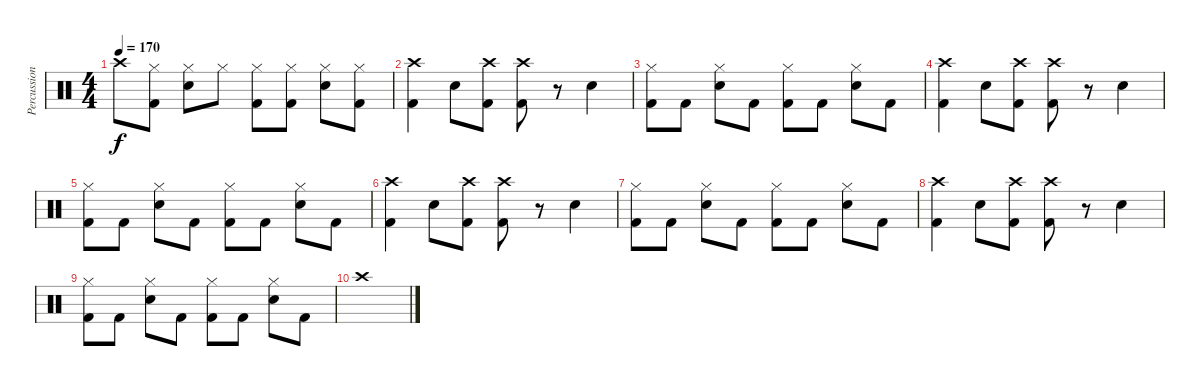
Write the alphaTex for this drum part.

\track ("Percussion" "Percussion") {instrument percussion}
\staff {score}
\articulation defaults
\ts (4 4)
\tempo 170
\clef neutral
\ks c "Crash high (hit)".8{dy f}
("Hi-Hat (closed)" "Kick (hit) 2").8 ("Hi-Hat (closed)" "Snare (hit) 2").8 "Hi-Hat (closed)".8 ("Hi-Hat (closed)" "Kick (hit) 2").8 ("Hi-Hat (closed)" "Kick (hit) 2").8 ("Hi-Hat (closed)" "Snare (hit) 2").8 ("Hi-Hat (closed)" "Kick (hit) 2").8 |
("Crash high (hit)" "Kick (hit) 2").4 "Snare (hit) 2".8 ("Crash high (hit)" "Kick (hit) 2").8 ("Crash high (hit)" "Kick (hit) 2").8 r.8 "Snare (hit) 2".4 |
("Hi-Hat (closed)" "Kick (hit) 2").8 "Kick (hit) 2".8 ("Hi-Hat (closed)" "Snare (hit) 2").8 "Kick (hit) 2".8 ("Hi-Hat (closed)" "Kick (hit) 2").8 "Kick (hit) 2".8 ("Hi-Hat (closed)" "Snare (hit) 2").8 "Kick (hit) 2".8 |
("Crash high (hit)" "Kick (hit) 2").4 "Snare (hit) 2".8 ("Crash high (hit)" "Kick (hit) 2").8 ("Crash high (hit)" "Kick (hit) 2").8 r.8 "Snare (hit) 2".4 |
("Hi-Hat (closed)" "Kick (hit) 2").8 "Kick (hit) 2".8 ("Hi-Hat (closed)" "Snare (hit) 2").8 "Kick (hit) 2".8 ("Hi-Hat (closed)" "Kick (hit) 2").8 "Kick (hit) 2".8 ("Hi-Hat (closed)" "Snare (hit) 2").8 "Kick (hit) 2".8 |
("Crash high (hit)" "Kick (hit) 2").4 "Snare (hit) 2".8 ("Crash high (hit)" "Kick (hit) 2").8 ("Crash high (hit)" "Kick (hit) 2").8 r.8 "Snare (hit) 2".4 |
("Hi-Hat (closed)" "Kick (hit) 2").8 "Kick (hit) 2".8 ("Hi-Hat (closed)" "Snare (hit) 2").8 "Kick (hit) 2".8 ("Hi-Hat (closed)" "Kick (hit) 2").8 "Kick (hit) 2".8 ("Hi-Hat (closed)" "Snare (hit) 2").8 "Kick (hit) 2".8 |
("Crash high (hit)" "Kick (hit) 2").4 "Snare (hit) 2".8 ("Crash high (hit)" "Kick (hit) 2").8 ("Crash high (hit)" "Kick (hit) 2").8 r.8 "Snare (hit) 2".4 |
("Hi-Hat (closed)" "Kick (hit) 2").8 "Kick (hit) 2".8 ("Hi-Hat (closed)" "Snare (hit) 2").8 "Kick (hit) 2".8 ("Hi-Hat (closed)" "Kick (hit) 2").8 "Kick (hit) 2".8 ("Hi-Hat (closed)" "Snare (hit) 2").8 "Kick (hit) 2".8 |
"Crash high (hit)".1
